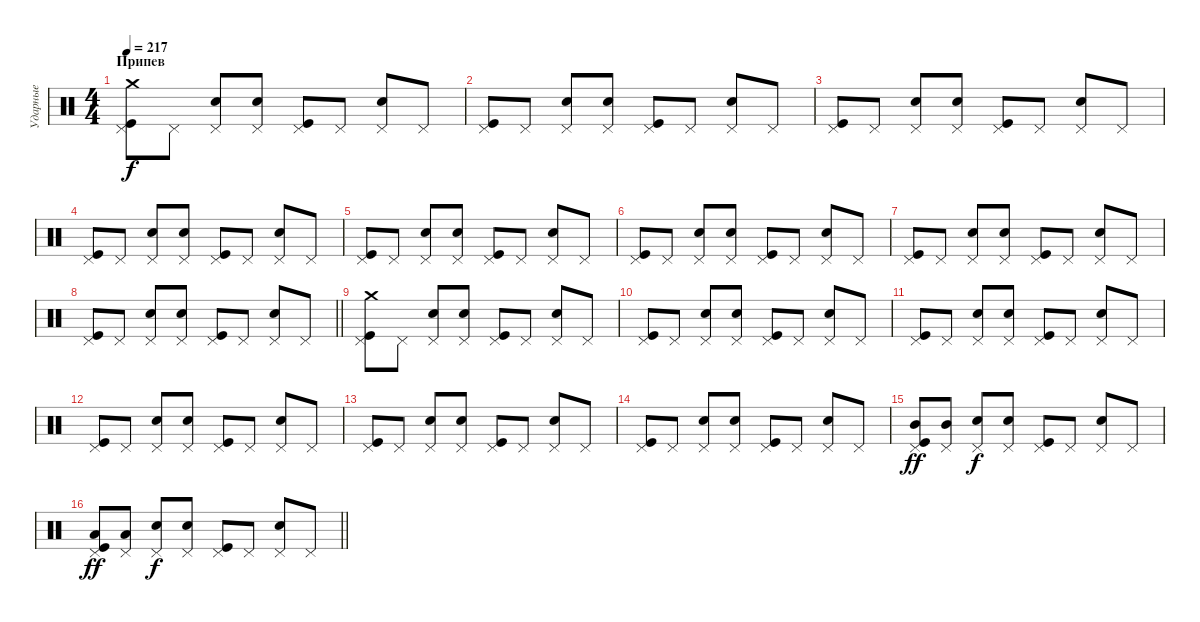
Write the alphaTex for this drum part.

\track ("Ударные" "Ударные") {instrument percussion}
\staff {score}
\articulation defaults
\ts (4 4)
\section ("" "Припев")
\tempo 217
\clef neutral
\ks c
("Pedal Hi-Hat (hit)" "Kick (hit)" "Crash medium (hit)").8{dy f} "Pedal Hi-Hat (hit)".8 ("Pedal Hi-Hat (hit)" "Snare (hit) 2").8 ("Pedal Hi-Hat (hit)" "Snare (hit) 2").8 ("Pedal Hi-Hat (hit)" "Kick (hit)").8 "Pedal Hi-Hat (hit)".8 ("Pedal Hi-Hat (hit)" "Snare (hit) 2").8 "Pedal Hi-Hat (hit)".8 |
("Pedal Hi-Hat (hit)" "Kick (hit)").8 "Pedal Hi-Hat (hit)".8 ("Pedal Hi-Hat (hit)" "Snare (hit) 2").8 ("Pedal Hi-Hat (hit)" "Snare (hit) 2").8 ("Pedal Hi-Hat (hit)" "Kick (hit)").8 "Pedal Hi-Hat (hit)".8 ("Pedal Hi-Hat (hit)" "Snare (hit) 2").8 "Pedal Hi-Hat (hit)".8 |
("Pedal Hi-Hat (hit)" "Kick (hit)").8 "Pedal Hi-Hat (hit)".8 ("Pedal Hi-Hat (hit)" "Snare (hit) 2").8 ("Pedal Hi-Hat (hit)" "Snare (hit) 2").8 ("Pedal Hi-Hat (hit)" "Kick (hit)").8 "Pedal Hi-Hat (hit)".8 ("Pedal Hi-Hat (hit)" "Snare (hit) 2").8 "Pedal Hi-Hat (hit)".8 |
("Pedal Hi-Hat (hit)" "Kick (hit)").8 "Pedal Hi-Hat (hit)".8 ("Pedal Hi-Hat (hit)" "Snare (hit) 2").8 ("Pedal Hi-Hat (hit)" "Snare (hit) 2").8 ("Pedal Hi-Hat (hit)" "Kick (hit)").8 "Pedal Hi-Hat (hit)".8 ("Pedal Hi-Hat (hit)" "Snare (hit) 2").8 "Pedal Hi-Hat (hit)".8 |
("Pedal Hi-Hat (hit)" "Kick (hit)").8 "Pedal Hi-Hat (hit)".8 ("Pedal Hi-Hat (hit)" "Snare (hit) 2").8 ("Pedal Hi-Hat (hit)" "Snare (hit) 2").8 ("Pedal Hi-Hat (hit)" "Kick (hit)").8 "Pedal Hi-Hat (hit)".8 ("Pedal Hi-Hat (hit)" "Snare (hit) 2").8 "Pedal Hi-Hat (hit)".8 |
("Pedal Hi-Hat (hit)" "Kick (hit)").8 "Pedal Hi-Hat (hit)".8 ("Pedal Hi-Hat (hit)" "Snare (hit) 2").8 ("Pedal Hi-Hat (hit)" "Snare (hit) 2").8 ("Pedal Hi-Hat (hit)" "Kick (hit)").8 "Pedal Hi-Hat (hit)".8 ("Pedal Hi-Hat (hit)" "Snare (hit) 2").8 "Pedal Hi-Hat (hit)".8 |
("Pedal Hi-Hat (hit)" "Kick (hit)").8 "Pedal Hi-Hat (hit)".8 ("Pedal Hi-Hat (hit)" "Snare (hit) 2").8 ("Pedal Hi-Hat (hit)" "Snare (hit) 2").8 ("Pedal Hi-Hat (hit)" "Kick (hit)").8 "Pedal Hi-Hat (hit)".8 ("Pedal Hi-Hat (hit)" "Snare (hit) 2").8 "Pedal Hi-Hat (hit)".8 |
\barLineRight lightlight
("Pedal Hi-Hat (hit)" "Kick (hit)").8 "Pedal Hi-Hat (hit)".8 ("Pedal Hi-Hat (hit)" "Snare (hit) 2").8 ("Pedal Hi-Hat (hit)" "Snare (hit) 2").8 ("Pedal Hi-Hat (hit)" "Kick (hit)").8 "Pedal Hi-Hat (hit)".8 ("Pedal Hi-Hat (hit)" "Snare (hit) 2").8 "Pedal Hi-Hat (hit)".8 |
("Pedal Hi-Hat (hit)" "Kick (hit)" "Crash medium (hit)").8 "Pedal Hi-Hat (hit)".8 ("Pedal Hi-Hat (hit)" "Snare (hit) 2").8 ("Pedal Hi-Hat (hit)" "Snare (hit) 2").8 ("Pedal Hi-Hat (hit)" "Kick (hit)").8 "Pedal Hi-Hat (hit)".8 ("Pedal Hi-Hat (hit)" "Snare (hit) 2").8 "Pedal Hi-Hat (hit)".8 |
("Pedal Hi-Hat (hit)" "Kick (hit)").8 "Pedal Hi-Hat (hit)".8 ("Pedal Hi-Hat (hit)" "Snare (hit) 2").8 ("Pedal Hi-Hat (hit)" "Snare (hit) 2").8 ("Pedal Hi-Hat (hit)" "Kick (hit)").8 "Pedal Hi-Hat (hit)".8 ("Pedal Hi-Hat (hit)" "Snare (hit) 2").8 "Pedal Hi-Hat (hit)".8 |
("Pedal Hi-Hat (hit)" "Kick (hit)").8 "Pedal Hi-Hat (hit)".8 ("Pedal Hi-Hat (hit)" "Snare (hit) 2").8 ("Pedal Hi-Hat (hit)" "Snare (hit) 2").8 ("Pedal Hi-Hat (hit)" "Kick (hit)").8 "Pedal Hi-Hat (hit)".8 ("Pedal Hi-Hat (hit)" "Snare (hit) 2").8 "Pedal Hi-Hat (hit)".8 |
("Pedal Hi-Hat (hit)" "Kick (hit)").8 "Pedal Hi-Hat (hit)".8 ("Pedal Hi-Hat (hit)" "Snare (hit) 2").8 ("Pedal Hi-Hat (hit)" "Snare (hit) 2").8 ("Pedal Hi-Hat (hit)" "Kick (hit)").8 "Pedal Hi-Hat (hit)".8 ("Pedal Hi-Hat (hit)" "Snare (hit) 2").8 "Pedal Hi-Hat (hit)".8 |
("Pedal Hi-Hat (hit)" "Kick (hit)").8 "Pedal Hi-Hat (hit)".8 ("Pedal Hi-Hat (hit)" "Snare (hit) 2").8 ("Pedal Hi-Hat (hit)" "Snare (hit) 2").8 ("Pedal Hi-Hat (hit)" "Kick (hit)").8 "Pedal Hi-Hat (hit)".8 ("Pedal Hi-Hat (hit)" "Snare (hit) 2").8 "Pedal Hi-Hat (hit)".8 |
("Pedal Hi-Hat (hit)" "Kick (hit)").8 "Pedal Hi-Hat (hit)".8 ("Pedal Hi-Hat (hit)" "Snare (hit) 2").8 ("Pedal Hi-Hat (hit)" "Snare (hit) 2").8 ("Pedal Hi-Hat (hit)" "Kick (hit)").8 "Pedal Hi-Hat (hit)".8 ("Pedal Hi-Hat (hit)" "Snare (hit) 2").8 "Pedal Hi-Hat (hit)".8 |
("Pedal Hi-Hat (hit)" "Kick (hit)" "Mid Tom (hit)").8{dy ff} ("Pedal Hi-Hat (hit)" "Mid Tom (hit)").8 ("Pedal Hi-Hat (hit)" "Snare (hit) 2").8{dy f} ("Pedal Hi-Hat (hit)" "Snare (hit) 2").8 ("Pedal Hi-Hat (hit)" "Kick (hit)").8 "Pedal Hi-Hat (hit)".8 ("Pedal Hi-Hat (hit)" "Snare (hit) 2").8 "Pedal Hi-Hat (hit)".8 |
\barLineRight lightlight
("Pedal Hi-Hat (hit)" "Kick (hit)" "Low Tom (hit)").8{dy ff} ("Pedal Hi-Hat (hit)" "Low Tom (hit)").8 ("Pedal Hi-Hat (hit)" "Snare (hit) 2").8{dy f} ("Pedal Hi-Hat (hit)" "Snare (hit) 2").8 ("Pedal Hi-Hat (hit)" "Kick (hit)").8 "Pedal Hi-Hat (hit)".8 ("Pedal Hi-Hat (hit)" "Snare (hit) 2").8 "Pedal Hi-Hat (hit)".8
